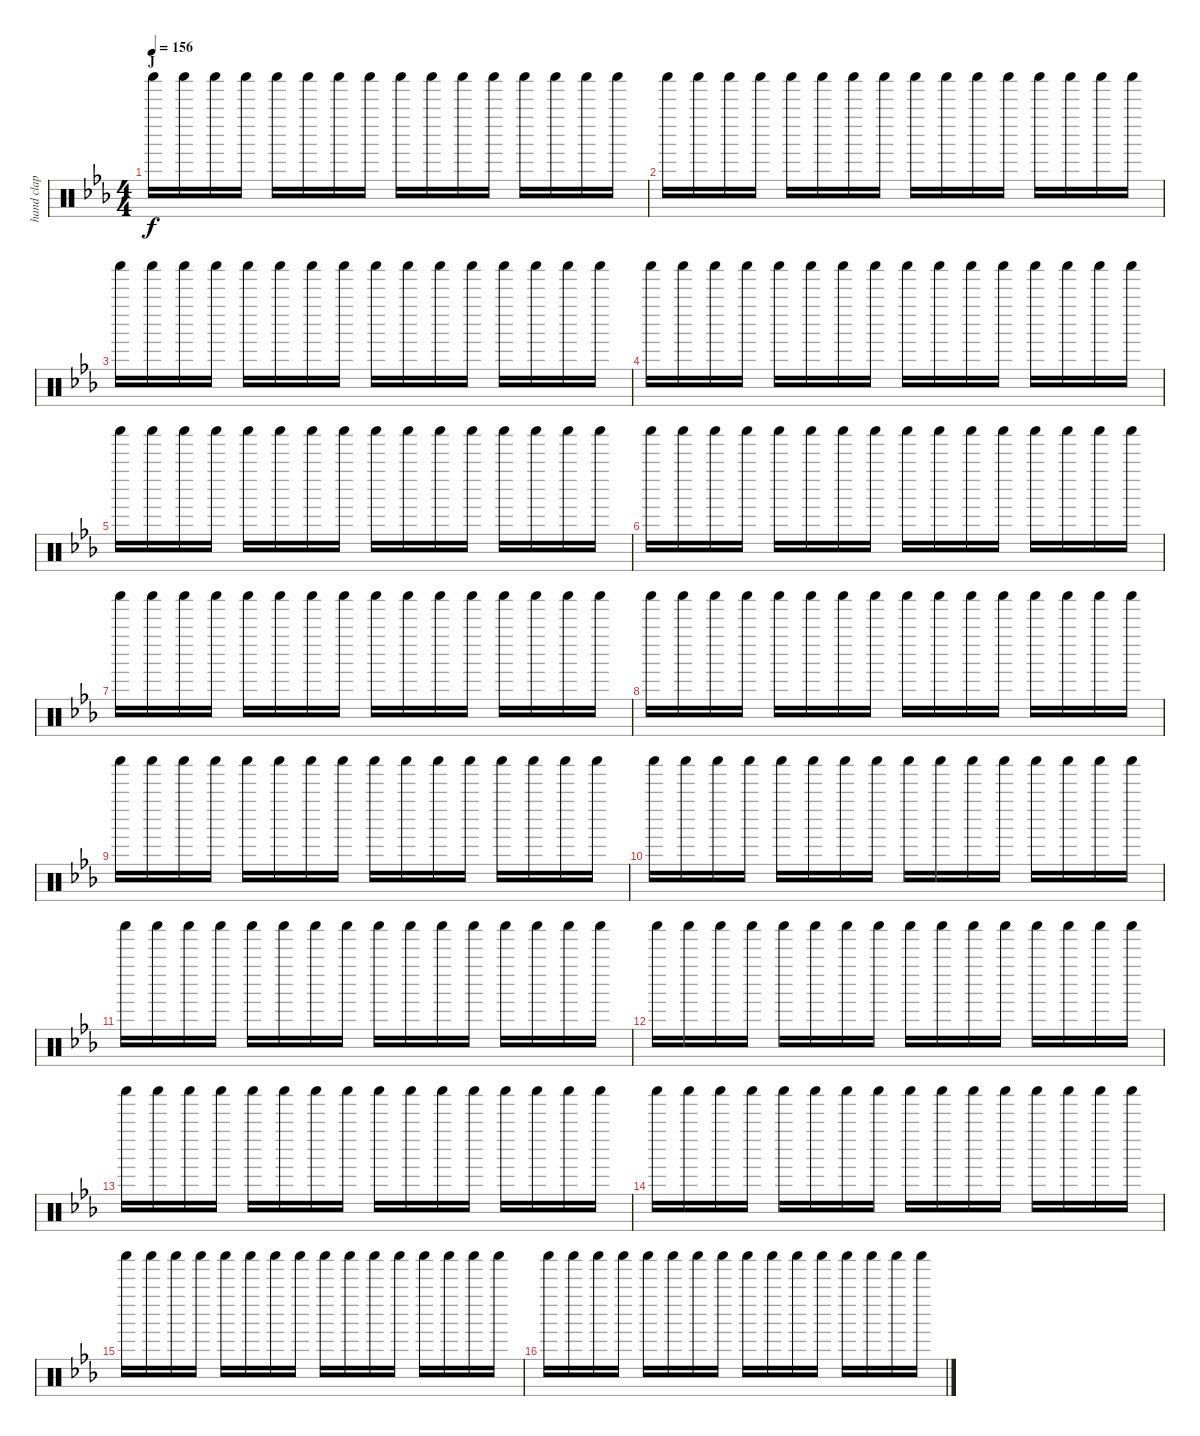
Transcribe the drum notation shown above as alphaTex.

\track ("hand clap + shaker" "hand clap ") {instrument percussion}
\staff {score}
\articulation defaults
\ts (4 4)
\section ("" "J")
\tempo 156
\clef neutral
\ks eb "Shaker (hit)".16{dy f} "Shaker (hit)".16 "Shaker (hit)".16 "Shaker (hit)".16 "Shaker (hit)".16 "Shaker (hit)".16 "Shaker (hit)".16 "Shaker (hit)".16 "Shaker (hit)".16 "Shaker (hit)".16 "Shaker (hit)".16 "Shaker (hit)".16 "Shaker (hit)".16 "Shaker (hit)".16 "Shaker (hit)".16 "Shaker (hit)".16
|
"Shaker (hit)".16 "Shaker (hit)".16 "Shaker (hit)".16 "Shaker (hit)".16 "Shaker (hit)".16 "Shaker (hit)".16 "Shaker (hit)".16 "Shaker (hit)".16 "Shaker (hit)".16 "Shaker (hit)".16 "Shaker (hit)".16 "Shaker (hit)".16 "Shaker (hit)".16 "Shaker (hit)".16 "Shaker (hit)".16 "Shaker (hit)".16 |
"Shaker (hit)".16 "Shaker (hit)".16 "Shaker (hit)".16 "Shaker (hit)".16 "Shaker (hit)".16 "Shaker (hit)".16 "Shaker (hit)".16 "Shaker (hit)".16 "Shaker (hit)".16 "Shaker (hit)".16 "Shaker (hit)".16 "Shaker (hit)".16 "Shaker (hit)".16 "Shaker (hit)".16 "Shaker (hit)".16 "Shaker (hit)".16 |
"Shaker (hit)".16 "Shaker (hit)".16 "Shaker (hit)".16 "Shaker (hit)".16 "Shaker (hit)".16 "Shaker (hit)".16 "Shaker (hit)".16 "Shaker (hit)".16 "Shaker (hit)".16 "Shaker (hit)".16 "Shaker (hit)".16 "Shaker (hit)".16 "Shaker (hit)".16 "Shaker (hit)".16 "Shaker (hit)".16 "Shaker (hit)".16 |
"Shaker (hit)".16 "Shaker (hit)".16 "Shaker (hit)".16 "Shaker (hit)".16 "Shaker (hit)".16 "Shaker (hit)".16 "Shaker (hit)".16 "Shaker (hit)".16 "Shaker (hit)".16 "Shaker (hit)".16 "Shaker (hit)".16 "Shaker (hit)".16 "Shaker (hit)".16 "Shaker (hit)".16 "Shaker (hit)".16 "Shaker (hit)".16 |
"Shaker (hit)".16 "Shaker (hit)".16 "Shaker (hit)".16 "Shaker (hit)".16 "Shaker (hit)".16 "Shaker (hit)".16 "Shaker (hit)".16 "Shaker (hit)".16 "Shaker (hit)".16 "Shaker (hit)".16 "Shaker (hit)".16 "Shaker (hit)".16 "Shaker (hit)".16 "Shaker (hit)".16 "Shaker (hit)".16 "Shaker (hit)".16 |
"Shaker (hit)".16 "Shaker (hit)".16 "Shaker (hit)".16 "Shaker (hit)".16 "Shaker (hit)".16 "Shaker (hit)".16 "Shaker (hit)".16 "Shaker (hit)".16 "Shaker (hit)".16 "Shaker (hit)".16 "Shaker (hit)".16 "Shaker (hit)".16 "Shaker (hit)".16 "Shaker (hit)".16 "Shaker (hit)".16 "Shaker (hit)".16 |
"Shaker (hit)".16 "Shaker (hit)".16 "Shaker (hit)".16 "Shaker (hit)".16 "Shaker (hit)".16 "Shaker (hit)".16 "Shaker (hit)".16 "Shaker (hit)".16 "Shaker (hit)".16 "Shaker (hit)".16 "Shaker (hit)".16 "Shaker (hit)".16 "Shaker (hit)".16 "Shaker (hit)".16 "Shaker (hit)".16 "Shaker (hit)".16 |
"Shaker (hit)".16 "Shaker (hit)".16 "Shaker (hit)".16 "Shaker (hit)".16 "Shaker (hit)".16 "Shaker (hit)".16 "Shaker (hit)".16 "Shaker (hit)".16 "Shaker (hit)".16 "Shaker (hit)".16 "Shaker (hit)".16 "Shaker (hit)".16 "Shaker (hit)".16 "Shaker (hit)".16 "Shaker (hit)".16 "Shaker (hit)".16 |
"Shaker (hit)".16 "Shaker (hit)".16 "Shaker (hit)".16 "Shaker (hit)".16 "Shaker (hit)".16 "Shaker (hit)".16 "Shaker (hit)".16 "Shaker (hit)".16 "Shaker (hit)".16 "Shaker (hit)".16 "Shaker (hit)".16 "Shaker (hit)".16 "Shaker (hit)".16 "Shaker (hit)".16 "Shaker (hit)".16 "Shaker (hit)".16 |
"Shaker (hit)".16 "Shaker (hit)".16 "Shaker (hit)".16 "Shaker (hit)".16 "Shaker (hit)".16 "Shaker (hit)".16 "Shaker (hit)".16 "Shaker (hit)".16 "Shaker (hit)".16 "Shaker (hit)".16 "Shaker (hit)".16 "Shaker (hit)".16 "Shaker (hit)".16 "Shaker (hit)".16 "Shaker (hit)".16 "Shaker (hit)".16 |
"Shaker (hit)".16 "Shaker (hit)".16 "Shaker (hit)".16 "Shaker (hit)".16 "Shaker (hit)".16 "Shaker (hit)".16 "Shaker (hit)".16 "Shaker (hit)".16 "Shaker (hit)".16 "Shaker (hit)".16 "Shaker (hit)".16 "Shaker (hit)".16 "Shaker (hit)".16 "Shaker (hit)".16 "Shaker (hit)".16 "Shaker (hit)".16 |
"Shaker (hit)".16 "Shaker (hit)".16 "Shaker (hit)".16 "Shaker (hit)".16 "Shaker (hit)".16 "Shaker (hit)".16 "Shaker (hit)".16 "Shaker (hit)".16 "Shaker (hit)".16 "Shaker (hit)".16 "Shaker (hit)".16 "Shaker (hit)".16 "Shaker (hit)".16 "Shaker (hit)".16 "Shaker (hit)".16 "Shaker (hit)".16 |
"Shaker (hit)".16 "Shaker (hit)".16 "Shaker (hit)".16 "Shaker (hit)".16 "Shaker (hit)".16 "Shaker (hit)".16 "Shaker (hit)".16 "Shaker (hit)".16 "Shaker (hit)".16 "Shaker (hit)".16 "Shaker (hit)".16 "Shaker (hit)".16 "Shaker (hit)".16 "Shaker (hit)".16 "Shaker (hit)".16 "Shaker (hit)".16 |
"Shaker (hit)".16 "Shaker (hit)".16 "Shaker (hit)".16 "Shaker (hit)".16 "Shaker (hit)".16 "Shaker (hit)".16 "Shaker (hit)".16 "Shaker (hit)".16 "Shaker (hit)".16 "Shaker (hit)".16 "Shaker (hit)".16 "Shaker (hit)".16 "Shaker (hit)".16 "Shaker (hit)".16 "Shaker (hit)".16 "Shaker (hit)".16 |
"Shaker (hit)".16 "Shaker (hit)".16 "Shaker (hit)".16 "Shaker (hit)".16 "Shaker (hit)".16 "Shaker (hit)".16 "Shaker (hit)".16 "Shaker (hit)".16 "Shaker (hit)".16 "Shaker (hit)".16 "Shaker (hit)".16 "Shaker (hit)".16 "Shaker (hit)".16 "Shaker (hit)".16 "Shaker (hit)".16 "Shaker (hit)".16
